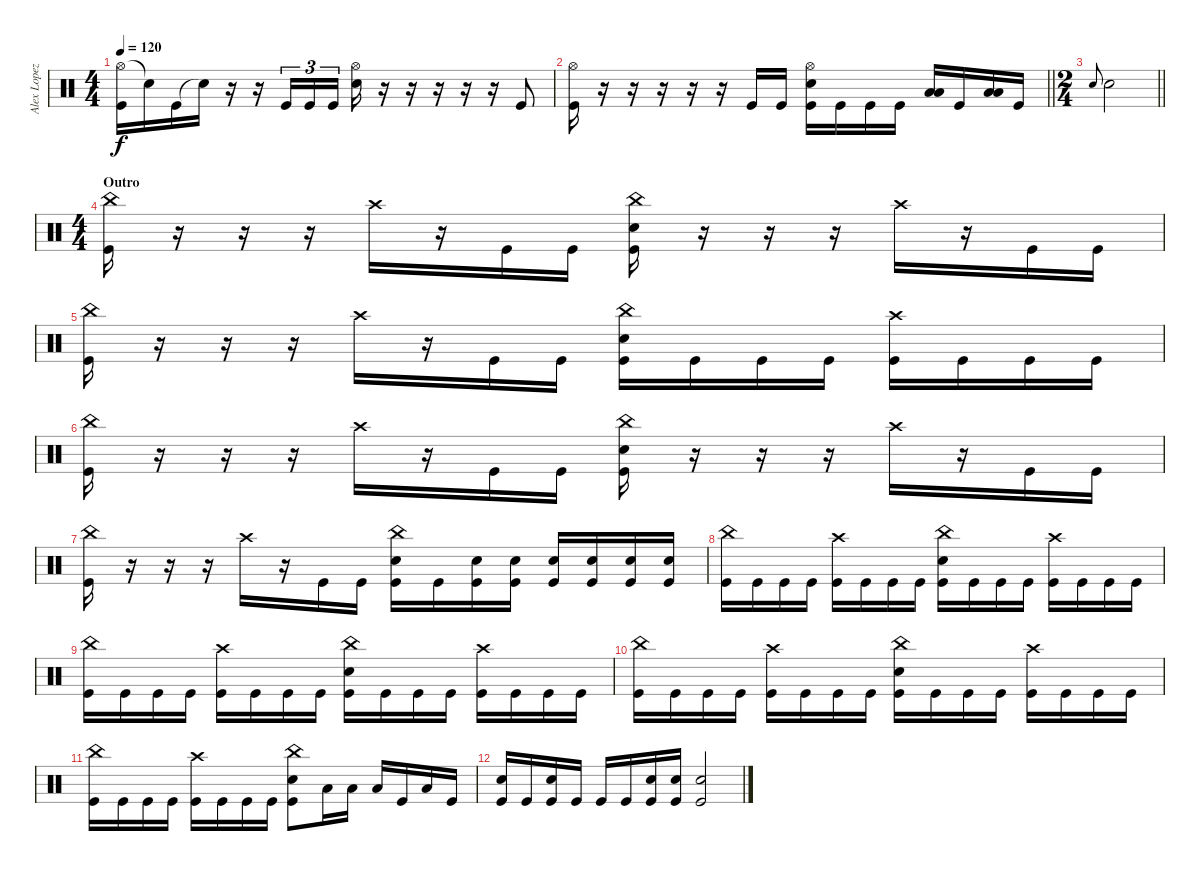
\track ("Alex Lopez - Drums" "Alex Lopez") {instrument percussion}
\staff {score}
\articulation defaults
\ts (4 4)
\tempo 120
\clef neutral
\ks c
("Hi-Hat (open)" "Kick (hit)").16{dy f volume 13} "Snare (hit)"{t}.16 "Kick (hit)".16 "Snare (hit)"{t}.16 r.16 r.16 "Kick (hit)".16{tu (3 2)} "Kick (hit)".16{tu (3 2)} "Kick (hit)".16{tu (3 2)} ("Hi-Hat (open)" "Electric Snare (hit)").16 r.16 r.16 r.16 r.16 r.16 "Kick (hit)".8 |
\barLineRight lightlight
("Hi-Hat (open)" "Kick (hit)").16 r.16 r.16 r.16 r.16 r.16 "Kick (hit)".16 "Kick (hit)".16 ("Hi-Hat (open)" "Electric Snare (hit)" "Kick (hit)").16 "Kick (hit)".16 "Kick (hit)".16 "Kick (hit)".16 ("Low Tom (hit)" "Low Floor Tom (hit)").16 "Kick (hit)".16 ("Low Tom (hit)" "Low Floor Tom (hit)").16 "Kick (hit)".16 |
\ts (2 4)
\barLineRight lightlight "Electric Snare (hit)".8{gr onbeat} "Electric Snare (hit)".2
|
\ts (4 4)
\section ("" "Outro")
("China (hit)" "Kick (hit)").16 r.16 r.16 r.16 "Crash high (hit)".16 r.16 "Kick (hit)".16 "Kick (hit)".16 ("China (hit)" "Electric Snare (hit)" "Kick (hit)").16 r.16 r.16 r.16 "Crash high (hit)".16 r.16 "Kick (hit)".16 "Kick (hit)".16 |
("China (hit)" "Kick (hit)").16 r.16 r.16 r.16 "Crash high (hit)".16 r.16 "Kick (hit)".16 "Kick (hit)".16 ("China (hit)" "Electric Snare (hit)" "Kick (hit)").16 "Kick (hit)".16 "Kick (hit)".16 "Kick (hit)".16 ("Crash high (hit)" "Kick (hit)").16 "Kick (hit)".16 "Kick (hit)".16 "Kick (hit)".16 |
("China (hit)" "Kick (hit)").16 r.16 r.16 r.16 "Crash high (hit)".16 r.16 "Kick (hit)".16 "Kick (hit)".16 ("China (hit)" "Electric Snare (hit)" "Kick (hit)").16 r.16 r.16 r.16 "Crash high (hit)".16 r.16 "Kick (hit)".16 "Kick (hit)".16 |
("China (hit)" "Kick (hit)").16 r.16 r.16 r.16 "Crash high (hit)".16 r.16 "Kick (hit)".16 "Kick (hit)".16 ("China (hit)" "Electric Snare (hit)" "Kick (hit)").16 "Kick (hit)".16 ("Electric Snare (hit)" "Kick (hit)").16 ("Electric Snare (hit)" "Kick (hit)").16 ("Electric Snare (hit)" "Kick (hit)").16 ("Electric Snare (hit)" "Kick (hit)").16 ("Electric Snare (hit)" "Kick (hit)").16 ("Electric Snare (hit)" "Kick (hit)").16 |
("China (hit)" "Kick (hit)").16 "Kick (hit)".16 "Kick (hit)".16 "Kick (hit)".16 ("Crash high (hit)" "Kick (hit)").16 "Kick (hit)".16 "Kick (hit)".16 "Kick (hit)".16 ("China (hit)" "Electric Snare (hit)" "Kick (hit)").16 "Kick (hit)".16 "Kick (hit)".16 "Kick (hit)".16 ("Crash high (hit)" "Kick (hit)").16 "Kick (hit)".16 "Kick (hit)".16 "Kick (hit)".16 |
("China (hit)" "Kick (hit)").16 "Kick (hit)".16 "Kick (hit)".16 "Kick (hit)".16 ("Crash high (hit)" "Kick (hit)").16 "Kick (hit)".16 "Kick (hit)".16 "Kick (hit)".16 ("China (hit)" "Electric Snare (hit)" "Kick (hit)").16 "Kick (hit)".16 "Kick (hit)".16 "Kick (hit)".16 ("Crash high (hit)" "Kick (hit)").16 "Kick (hit)".16 "Kick (hit)".16 "Kick (hit)".16 |
("China (hit)" "Kick (hit)").16 "Kick (hit)".16 "Kick (hit)".16 "Kick (hit)".16 ("Crash high (hit)" "Kick (hit)").16 "Kick (hit)".16 "Kick (hit)".16 "Kick (hit)".16 ("China (hit)" "Electric Snare (hit)" "Kick (hit)").16 "Kick (hit)".16 "Kick (hit)".16 "Kick (hit)".16 ("Crash high (hit)" "Kick (hit)").16 "Kick (hit)".16 "Kick (hit)".16 "Kick (hit)".16 |
("China (hit)" "Kick (hit)").16 "Kick (hit)".16 "Kick (hit)".16 "Kick (hit)".16 ("Crash high (hit)" "Kick (hit)").16 "Kick (hit)".16 "Kick (hit)".16 "Kick (hit)".16 ("China (hit)" "Electric Snare (hit)" "Kick (hit)").8 "Low Tom (hit)".16 "Low Tom (hit)".16 "Low Floor Tom (hit)".16 "Kick (hit)".16 "Low Floor Tom (hit)".16 "Kick (hit)".16 |
("Electric Snare (hit)" "Kick (hit)").16 "Kick (hit)".16 ("Electric Snare (hit)" "Kick (hit)").16 "Kick (hit)".16 "Kick (hit)".16 "Kick (hit)".16 ("Electric Snare (hit)" "Kick (hit)").16 ("Electric Snare (hit)" "Kick (hit)").16 ("Electric Snare (hit)" "Kick (hit)").2
